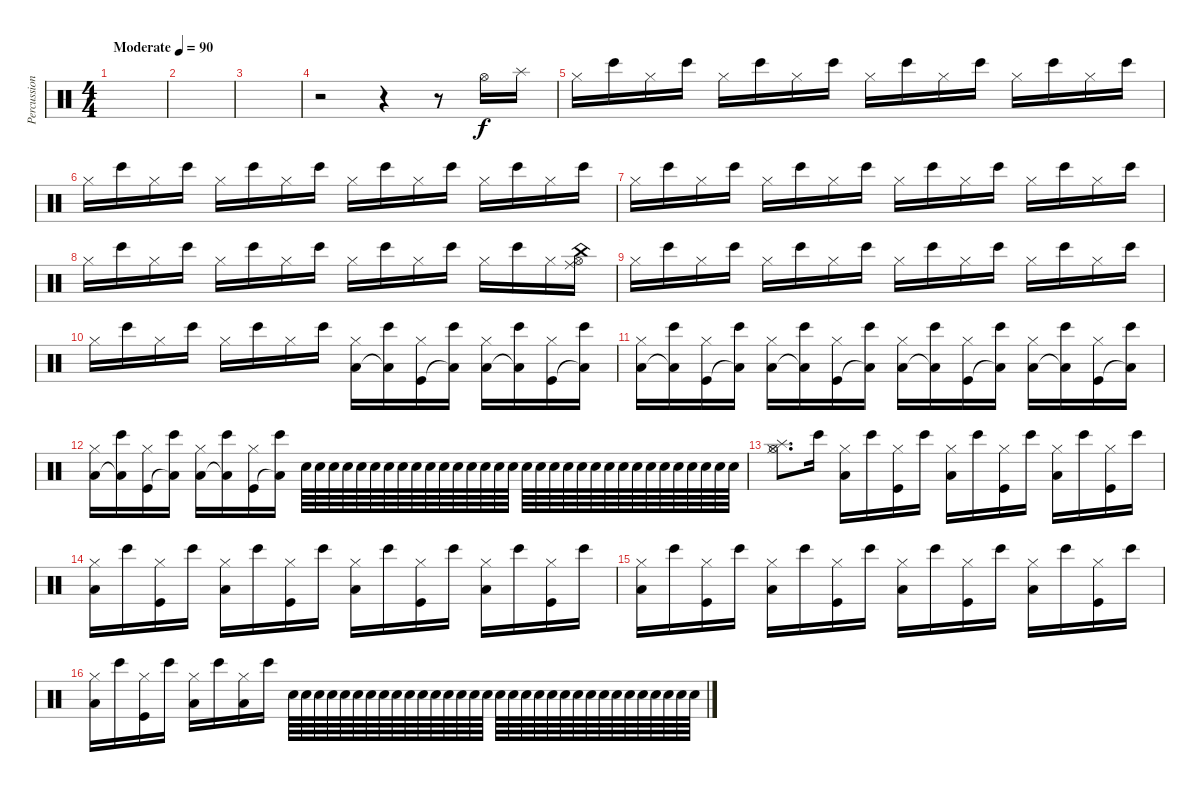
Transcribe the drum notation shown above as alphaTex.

\track ("Percussion" "Percussion") {instrument percussion}
\staff {score}
\articulation defaults
\ts (4 4)
\tempo (90 "Moderate")
\clef neutral
\ks c
|
|
|
r.2 r.4 r.8 "Hi-Hat (open)".16 "Splash (hit)".16 |
"Hi-Hat (closed)".16 "Bongo High (hit)".16 "Hi-Hat (closed)".16 "Bongo High (hit)".16 "Hi-Hat (closed)".16 "Bongo High (hit)".16 "Hi-Hat (closed)".16 "Bongo High (hit)".16 "Hi-Hat (closed)".16 "Bongo High (hit)".16 "Hi-Hat (closed)".16 "Bongo High (hit)".16 "Hi-Hat (closed)".16 "Bongo High (hit)".16 "Hi-Hat (closed)".16 "Bongo High (hit)".16 |
"Hi-Hat (closed)".16 "Bongo High (hit)".16 "Hi-Hat (closed)".16 "Bongo High (hit)".16 "Hi-Hat (closed)".16 "Bongo High (hit)".16 "Hi-Hat (closed)".16 "Bongo High (hit)".16 "Hi-Hat (closed)".16 "Bongo High (hit)".16 "Hi-Hat (closed)".16 "Bongo High (hit)".16 "Hi-Hat (closed)".16 "Bongo High (hit)".16 "Hi-Hat (closed)".16 "Bongo High (hit)".16 |
"Hi-Hat (closed)".16 "Bongo High (hit)".16 "Hi-Hat (closed)".16 "Bongo High (hit)".16 "Hi-Hat (closed)".16 "Bongo High (hit)".16 "Hi-Hat (closed)".16 "Bongo High (hit)".16 "Hi-Hat (closed)".16 "Bongo High (hit)".16 "Hi-Hat (closed)".16 "Bongo High (hit)".16 "Hi-Hat (closed)".16 "Bongo High (hit)".16 "Hi-Hat (closed)".16 "Bongo High (hit)".16 |
"Hi-Hat (closed)".16 "Bongo High (hit)".16 "Hi-Hat (closed)".16 "Bongo High (hit)".16 "Hi-Hat (closed)".16 "Bongo High (hit)".16 "Hi-Hat (closed)".16 "Bongo High (hit)".16 "Hi-Hat (closed)".16 "Bongo High (hit)".16 "Hi-Hat (closed)".16 "Bongo High (hit)".16 "Hi-Hat (closed)".16 "Bongo High (hit)".16 "Hi-Hat (closed)".16 ("Hi-Hat (open)" "China (hit)" "Ride (middle)").16 |
"Hi-Hat (closed)".16 "Bongo High (hit)".16 "Hi-Hat (closed)".16 "Bongo High (hit)".16 "Hi-Hat (closed)".16 "Bongo High (hit)".16 "Hi-Hat (closed)".16 "Bongo High (hit)".16 "Hi-Hat (closed)".16 "Bongo High (hit)".16 "Hi-Hat (closed)".16 "Bongo High (hit)".16 "Hi-Hat (closed)".16 "Bongo High (hit)".16 "Hi-Hat (closed)".16 "Bongo High (hit)".16 |
"Hi-Hat (closed)".16 "Bongo High (hit)".16 "Hi-Hat (closed)".16 "Bongo High (hit)".16 "Hi-Hat (closed)".16 "Bongo High (hit)".16 "Hi-Hat (closed)".16 "Bongo High (hit)".16 ("Hi-Hat (closed)" "Low Floor Tom (hit)").16 ("Bongo High (hit)" "Low Floor Tom (hit)"{t}).16 ("Hi-Hat (closed)" "Kick (hit)").16 ("Bongo High (hit)" "Low Floor Tom (hit)"{t}).16 ("Hi-Hat (closed)" "Low Floor Tom (hit)").16 ("Bongo High (hit)" "Low Floor Tom (hit)"{t}).16 ("Hi-Hat (closed)" "Kick (hit)").16 ("Bongo High (hit)" "Low Floor Tom (hit)"{t}).16 |
("Hi-Hat (closed)" "Low Floor Tom (hit)").16 ("Bongo High (hit)" "Low Floor Tom (hit)"{t}).16 ("Hi-Hat (closed)" "Kick (hit)").16 ("Bongo High (hit)" "Low Floor Tom (hit)"{t}).16 ("Hi-Hat (closed)" "Low Floor Tom (hit)").16 ("Bongo High (hit)" "Low Floor Tom (hit)"{t}).16 ("Hi-Hat (closed)" "Kick (hit)").16 ("Bongo High (hit)" "Low Floor Tom (hit)"{t}).16 ("Hi-Hat (closed)" "Low Floor Tom (hit)").16 ("Bongo High (hit)" "Low Floor Tom (hit)"{t}).16 ("Hi-Hat (closed)" "Kick (hit)").16 ("Bongo High (hit)" "Low Floor Tom (hit)"{t}).16 ("Hi-Hat (closed)" "Low Floor Tom (hit)").16 ("Bongo High (hit)" "Low Floor Tom (hit)"{t}).16 ("Hi-Hat (closed)" "Kick (hit)").16 ("Bongo High (hit)" "Low Floor Tom (hit)"{t}).16 |
("Hi-Hat (closed)" "Low Floor Tom (hit)").16 ("Bongo High (hit)" "Low Floor Tom (hit)"{t}).16 ("Hi-Hat (closed)" "Kick (hit)").16 ("Bongo High (hit)" "Low Floor Tom (hit)"{t}).16 ("Hi-Hat (closed)" "Low Floor Tom (hit)").16 ("Bongo High (hit)" "Low Floor Tom (hit)"{t}).16 ("Hi-Hat (closed)" "Kick (hit)").16 ("Bongo High (hit)" "Low Floor Tom (hit)"{t}).16 "Snare (hit) 2".64 "Electric Snare (hit)".64 "Snare (hit) 2".64 "Electric Snare (hit)".64 "Snare (hit) 2".64 "Electric Snare (hit)".64 "Snare (hit) 2".64 "Electric Snare (hit)".64 "Snare (hit) 2".64 "Electric Snare (hit)".64 "Snare (hit) 2".64 "Electric Snare (hit)".64 "Snare (hit) 2".64 "Electric Snare (hit)".64 "Snare (hit) 2".64 "Electric Snare (hit)".64 "Snare (hit) 2".64 "Electric Snare (hit)".64 "Snare (hit) 2".64 "Electric Snare (hit)".64 "Snare (hit) 2".64 "Electric Snare (hit)".64 "Snare (hit) 2".64 "Electric Snare (hit)".64 "Snare (hit) 2".64 "Electric Snare (hit)".64 "Snare (hit) 2".64 "Electric Snare (hit)".64 "Snare (hit) 2".64 "Electric Snare (hit)".64 "Snare (hit) 2".64 "Electric Snare (hit)".64 |
("Hi-Hat (closed)" "Hi-Hat (open)" "Splash (hit)").8{d} "Bongo High (hit)".16 ("Hi-Hat (closed)" "Low Floor Tom (hit)").16 "Bongo High (hit)".16 ("Hi-Hat (closed)" "Kick (hit)").16 "Bongo High (hit)".16 ("Hi-Hat (closed)" "Low Floor Tom (hit)").16 "Bongo High (hit)".16 ("Hi-Hat (closed)" "Kick (hit)").16 "Bongo High (hit)".16 ("Hi-Hat (closed)" "Low Floor Tom (hit)").16 "Bongo High (hit)".16 ("Hi-Hat (closed)" "Kick (hit)").16 "Bongo High (hit)".16 |
("Hi-Hat (closed)" "Low Floor Tom (hit)").16 "Bongo High (hit)".16 ("Hi-Hat (closed)" "Kick (hit)").16 "Bongo High (hit)".16 ("Hi-Hat (closed)" "Low Floor Tom (hit)").16 "Bongo High (hit)".16 ("Hi-Hat (closed)" "Kick (hit)").16 "Bongo High (hit)".16 ("Hi-Hat (closed)" "Low Floor Tom (hit)").16 "Bongo High (hit)".16 ("Hi-Hat (closed)" "Kick (hit)").16 "Bongo High (hit)".16 ("Hi-Hat (closed)" "Low Floor Tom (hit)").16 "Bongo High (hit)".16 ("Hi-Hat (closed)" "Kick (hit)").16 "Bongo High (hit)".16 |
("Hi-Hat (closed)" "Low Floor Tom (hit)").16 "Bongo High (hit)".16 ("Hi-Hat (closed)" "Kick (hit)").16 "Bongo High (hit)".16 ("Hi-Hat (closed)" "Low Floor Tom (hit)").16 "Bongo High (hit)".16 ("Hi-Hat (closed)" "Kick (hit)").16 "Bongo High (hit)".16 ("Hi-Hat (closed)" "Low Floor Tom (hit)").16 "Bongo High (hit)".16 ("Hi-Hat (closed)" "Kick (hit)").16 "Bongo High (hit)".16 ("Hi-Hat (closed)" "Low Floor Tom (hit)").16 "Bongo High (hit)".16 ("Hi-Hat (closed)" "Kick (hit)").16 "Bongo High (hit)".16 |
("Hi-Hat (closed)" "Low Floor Tom (hit)").16 "Bongo High (hit)".16 ("Hi-Hat (closed)" "Kick (hit)").16 "Bongo High (hit)".16 ("Hi-Hat (closed)" "Low Floor Tom (hit)").16 "Bongo High (hit)".16 ("Hi-Hat (closed)" "Low Floor Tom (hit)").16 "Bongo High (hit)".16 "Snare (hit) 2".64 "Electric Snare (hit)".64 "Snare (hit) 2".64 "Electric Snare (hit)".64 "Snare (hit) 2".64 "Electric Snare (hit)".64 "Snare (hit) 2".64 "Electric Snare (hit)".64 "Snare (hit) 2".64 "Electric Snare (hit)".64 "Snare (hit) 2".64 "Electric Snare (hit)".64 "Snare (hit) 2".64 "Electric Snare (hit)".64 "Snare (hit) 2".64 "Electric Snare (hit)".64 "Snare (hit) 2".64 "Electric Snare (hit)".64 "Snare (hit) 2".64 "Electric Snare (hit)".64 "Snare (hit) 2".64 "Electric Snare (hit)".64 "Snare (hit) 2".64 "Electric Snare (hit)".64 "Snare (hit) 2".64 "Electric Snare (hit)".64 "Snare (hit) 2".64 "Electric Snare (hit)".64 "Snare (hit) 2".64 "Electric Snare (hit)".64 "Snare (hit) 2".64 "Electric Snare (hit)".64
